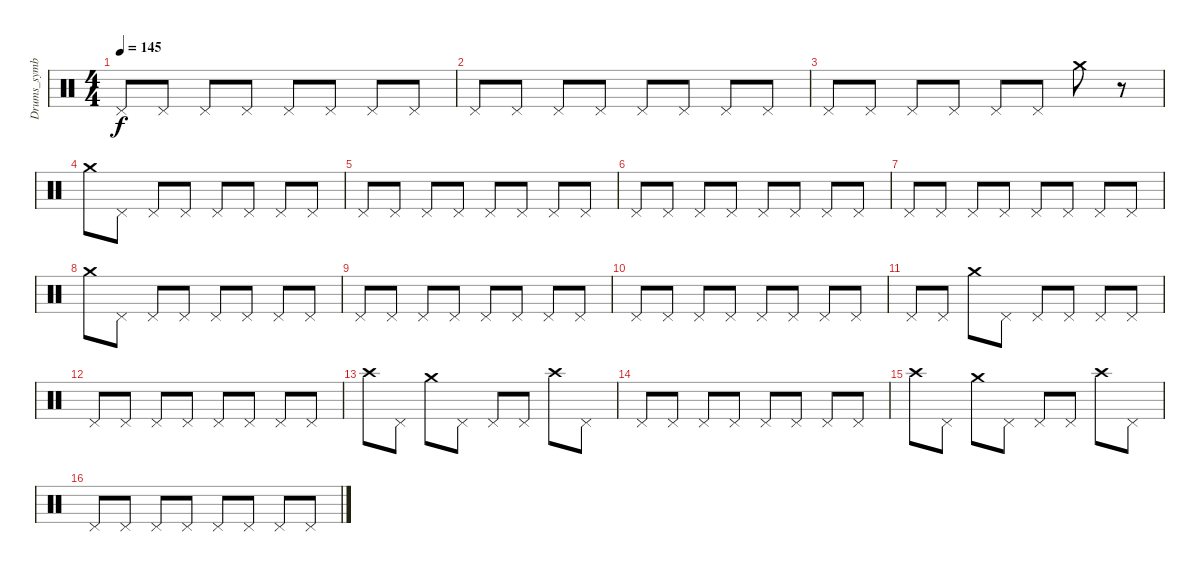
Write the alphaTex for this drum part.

\track ("Drums_symbal" "Drums_symb") {instrument percussion}
\staff {score}
\articulation defaults
\ts (4 4)
\tempo 145
\clef neutral
\ks c "Pedal Hi-Hat (hit)".8{dy f} "Pedal Hi-Hat (hit)".8 "Pedal Hi-Hat (hit)".8 "Pedal Hi-Hat (hit)".8 "Pedal Hi-Hat (hit)".8 "Pedal Hi-Hat (hit)".8 "Pedal Hi-Hat (hit)".8 "Pedal Hi-Hat (hit)".8
|
"Pedal Hi-Hat (hit)".8 "Pedal Hi-Hat (hit)".8 "Pedal Hi-Hat (hit)".8 "Pedal Hi-Hat (hit)".8 "Pedal Hi-Hat (hit)".8 "Pedal Hi-Hat (hit)".8 "Pedal Hi-Hat (hit)".8 "Pedal Hi-Hat (hit)".8 |
"Pedal Hi-Hat (hit)".8 "Pedal Hi-Hat (hit)".8 "Pedal Hi-Hat (hit)".8 "Pedal Hi-Hat (hit)".8 "Pedal Hi-Hat (hit)".8 "Pedal Hi-Hat (hit)".8 "Crash medium (hit)".8 r.8 |
"Crash medium (hit)".8 "Pedal Hi-Hat (hit)".8 "Pedal Hi-Hat (hit)".8 "Pedal Hi-Hat (hit)".8 "Pedal Hi-Hat (hit)".8 "Pedal Hi-Hat (hit)".8 "Pedal Hi-Hat (hit)".8 "Pedal Hi-Hat (hit)".8 |
"Pedal Hi-Hat (hit)".8 "Pedal Hi-Hat (hit)".8 "Pedal Hi-Hat (hit)".8 "Pedal Hi-Hat (hit)".8 "Pedal Hi-Hat (hit)".8 "Pedal Hi-Hat (hit)".8 "Pedal Hi-Hat (hit)".8 "Pedal Hi-Hat (hit)".8 |
"Pedal Hi-Hat (hit)".8 "Pedal Hi-Hat (hit)".8 "Pedal Hi-Hat (hit)".8 "Pedal Hi-Hat (hit)".8 "Pedal Hi-Hat (hit)".8 "Pedal Hi-Hat (hit)".8 "Pedal Hi-Hat (hit)".8 "Pedal Hi-Hat (hit)".8 |
"Pedal Hi-Hat (hit)".8 "Pedal Hi-Hat (hit)".8 "Pedal Hi-Hat (hit)".8 "Pedal Hi-Hat (hit)".8 "Pedal Hi-Hat (hit)".8 "Pedal Hi-Hat (hit)".8 "Pedal Hi-Hat (hit)".8 "Pedal Hi-Hat (hit)".8 |
"Crash medium (hit)".8 "Pedal Hi-Hat (hit)".8 "Pedal Hi-Hat (hit)".8 "Pedal Hi-Hat (hit)".8 "Pedal Hi-Hat (hit)".8 "Pedal Hi-Hat (hit)".8 "Pedal Hi-Hat (hit)".8 "Pedal Hi-Hat (hit)".8 |
"Pedal Hi-Hat (hit)".8 "Pedal Hi-Hat (hit)".8 "Pedal Hi-Hat (hit)".8 "Pedal Hi-Hat (hit)".8 "Pedal Hi-Hat (hit)".8 "Pedal Hi-Hat (hit)".8 "Pedal Hi-Hat (hit)".8 "Pedal Hi-Hat (hit)".8 |
"Pedal Hi-Hat (hit)".8 "Pedal Hi-Hat (hit)".8 "Pedal Hi-Hat (hit)".8 "Pedal Hi-Hat (hit)".8 "Pedal Hi-Hat (hit)".8 "Pedal Hi-Hat (hit)".8 "Pedal Hi-Hat (hit)".8 "Pedal Hi-Hat (hit)".8 |
"Pedal Hi-Hat (hit)".8 "Pedal Hi-Hat (hit)".8 "Crash medium (hit)".8 "Pedal Hi-Hat (hit)".8 "Pedal Hi-Hat (hit)".8 "Pedal Hi-Hat (hit)".8 "Pedal Hi-Hat (hit)".8 "Pedal Hi-Hat (hit)".8 |
"Pedal Hi-Hat (hit)".8 "Pedal Hi-Hat (hit)".8 "Pedal Hi-Hat (hit)".8 "Pedal Hi-Hat (hit)".8 "Pedal Hi-Hat (hit)".8 "Pedal Hi-Hat (hit)".8 "Pedal Hi-Hat (hit)".8 "Pedal Hi-Hat (hit)".8 |
"Crash high (hit)".8 "Pedal Hi-Hat (hit)".8 "Crash medium (hit)".8 "Pedal Hi-Hat (hit)".8 "Pedal Hi-Hat (hit)".8 "Pedal Hi-Hat (hit)".8 "Crash high (hit)".8 "Pedal Hi-Hat (hit)".8 |
"Pedal Hi-Hat (hit)".8 "Pedal Hi-Hat (hit)".8 "Pedal Hi-Hat (hit)".8 "Pedal Hi-Hat (hit)".8 "Pedal Hi-Hat (hit)".8 "Pedal Hi-Hat (hit)".8 "Pedal Hi-Hat (hit)".8 "Pedal Hi-Hat (hit)".8 |
"Crash high (hit)".8 "Pedal Hi-Hat (hit)".8 "Crash medium (hit)".8 "Pedal Hi-Hat (hit)".8 "Pedal Hi-Hat (hit)".8 "Pedal Hi-Hat (hit)".8 "Crash high (hit)".8 "Pedal Hi-Hat (hit)".8 |
"Pedal Hi-Hat (hit)".8 "Pedal Hi-Hat (hit)".8 "Pedal Hi-Hat (hit)".8 "Pedal Hi-Hat (hit)".8 "Pedal Hi-Hat (hit)".8 "Pedal Hi-Hat (hit)".8 "Pedal Hi-Hat (hit)".8 "Pedal Hi-Hat (hit)".8
